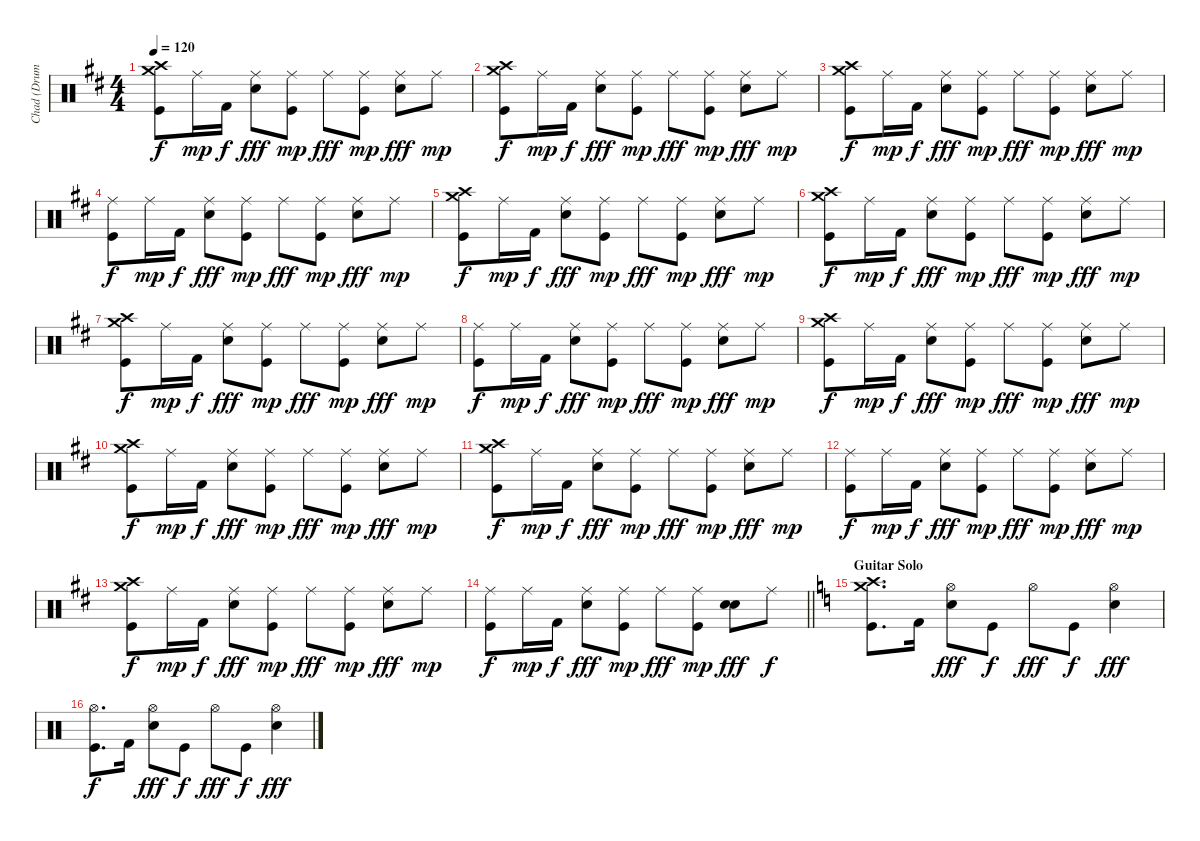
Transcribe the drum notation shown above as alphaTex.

\track ("Chad (Drums)" "Chad (Drum") {instrument percussion}
\staff {score}
\articulation defaults
\ts (4 4)
\tempo 120
\clef neutral
\ks d
("Crash high (hit)" "Crash medium (hit)" "Kick (hit)").8{dy f} "Ride (middle)".16{dy mp} "Kick (hit) 2".16{dy f} ("Ride (middle)" "Snare (hit) 2").8{dy fff} ("Ride (middle)" "Kick (hit)").8{dy mp} "Ride (middle)".8{dy fff} ("Ride (middle)" "Kick (hit)").8{dy mp} ("Ride (middle)" "Snare (hit) 2").8{dy fff} "Ride (middle)".8{dy mp} |
("Crash high (hit)" "Crash medium (hit)" "Kick (hit)").8{dy f} "Ride (middle)".16{dy mp} "Kick (hit) 2".16{dy f} ("Ride (middle)" "Snare (hit) 2").8{dy fff} ("Ride (middle)" "Kick (hit)").8{dy mp} "Ride (middle)".8{dy fff} ("Ride (middle)" "Kick (hit)").8{dy mp} ("Ride (middle)" "Snare (hit) 2").8{dy fff} "Ride (middle)".8{dy mp} |
("Crash high (hit)" "Crash medium (hit)" "Kick (hit)").8{dy f} "Ride (middle)".16{dy mp} "Kick (hit) 2".16{dy f} ("Ride (middle)" "Snare (hit) 2").8{dy fff} ("Ride (middle)" "Kick (hit)").8{dy mp} "Ride (middle)".8{dy fff} ("Ride (middle)" "Kick (hit)").8{dy mp} ("Ride (middle)" "Snare (hit) 2").8{dy fff} "Ride (middle)".8{dy mp} |
("Ride (middle)" "Kick (hit)").8{dy f} "Ride (middle)".16{dy mp} "Kick (hit) 2".16{dy f} ("Ride (middle)" "Snare (hit) 2").8{dy fff} ("Ride (middle)" "Kick (hit)").8{dy mp} "Ride (middle)".8{dy fff} ("Ride (middle)" "Kick (hit)").8{dy mp} ("Ride (middle)" "Snare (hit) 2").8{dy fff} "Ride (middle)".8{dy mp} |
("Crash high (hit)" "Crash medium (hit)" "Kick (hit)").8{dy f} "Ride (middle)".16{dy mp} "Kick (hit) 2".16{dy f} ("Ride (middle)" "Snare (hit) 2").8{dy fff} ("Ride (middle)" "Kick (hit)").8{dy mp} "Ride (middle)".8{dy fff} ("Ride (middle)" "Kick (hit)").8{dy mp} ("Ride (middle)" "Snare (hit) 2").8{dy fff} "Ride (middle)".8{dy mp} |
("Crash high (hit)" "Crash medium (hit)" "Kick (hit)").8{dy f} "Ride (middle)".16{dy mp} "Kick (hit) 2".16{dy f} ("Ride (middle)" "Snare (hit) 2").8{dy fff} ("Ride (middle)" "Kick (hit)").8{dy mp} "Ride (middle)".8{dy fff} ("Ride (middle)" "Kick (hit)").8{dy mp} ("Ride (middle)" "Snare (hit) 2").8{dy fff} "Ride (middle)".8{dy mp} |
("Crash high (hit)" "Crash medium (hit)" "Kick (hit)").8{dy f} "Ride (middle)".16{dy mp} "Kick (hit) 2".16{dy f} ("Ride (middle)" "Snare (hit) 2").8{dy fff} ("Ride (middle)" "Kick (hit)").8{dy mp} "Ride (middle)".8{dy fff} ("Ride (middle)" "Kick (hit)").8{dy mp} ("Ride (middle)" "Snare (hit) 2").8{dy fff} "Ride (middle)".8{dy mp} |
("Ride (middle)" "Kick (hit)").8{dy f} "Ride (middle)".16{dy mp} "Kick (hit) 2".16{dy f} ("Ride (middle)" "Snare (hit) 2").8{dy fff} ("Ride (middle)" "Kick (hit)").8{dy mp} "Ride (middle)".8{dy fff} ("Ride (middle)" "Kick (hit)").8{dy mp} ("Ride (middle)" "Snare (hit) 2").8{dy fff} "Ride (middle)".8{dy mp} |
("Crash high (hit)" "Crash medium (hit)" "Kick (hit)").8{dy f} "Ride (middle)".16{dy mp} "Kick (hit) 2".16{dy f} ("Ride (middle)" "Snare (hit) 2").8{dy fff} ("Ride (middle)" "Kick (hit)").8{dy mp} "Ride (middle)".8{dy fff} ("Ride (middle)" "Kick (hit)").8{dy mp} ("Ride (middle)" "Snare (hit) 2").8{dy fff} "Ride (middle)".8{dy mp} |
("Crash high (hit)" "Crash medium (hit)" "Kick (hit)").8{dy f} "Ride (middle)".16{dy mp} "Kick (hit) 2".16{dy f} ("Ride (middle)" "Snare (hit) 2").8{dy fff} ("Ride (middle)" "Kick (hit)").8{dy mp} "Ride (middle)".8{dy fff} ("Ride (middle)" "Kick (hit)").8{dy mp} ("Ride (middle)" "Snare (hit) 2").8{dy fff} "Ride (middle)".8{dy mp} |
("Crash high (hit)" "Crash medium (hit)" "Kick (hit)").8{dy f} "Ride (middle)".16{dy mp} "Kick (hit) 2".16{dy f} ("Ride (middle)" "Snare (hit) 2").8{dy fff} ("Ride (middle)" "Kick (hit)").8{dy mp} "Ride (middle)".8{dy fff} ("Ride (middle)" "Kick (hit)").8{dy mp} ("Ride (middle)" "Snare (hit) 2").8{dy fff} "Ride (middle)".8{dy mp} |
("Ride (middle)" "Kick (hit)").8{dy f} "Ride (middle)".16{dy mp} "Kick (hit) 2".16{dy f} ("Ride (middle)" "Snare (hit) 2").8{dy fff} ("Ride (middle)" "Kick (hit)").8{dy mp} "Ride (middle)".8{dy fff} ("Ride (middle)" "Kick (hit)").8{dy mp} ("Ride (middle)" "Snare (hit) 2").8{dy fff} "Ride (middle)".8{dy mp} |
("Crash high (hit)" "Crash medium (hit)" "Kick (hit)").8{dy f} "Ride (middle)".16{dy mp} "Kick (hit) 2".16{dy f} ("Ride (middle)" "Snare (hit) 2").8{dy fff} ("Ride (middle)" "Kick (hit)").8{dy mp} "Ride (middle)".8{dy fff} ("Ride (middle)" "Kick (hit)").8{dy mp} ("Ride (middle)" "Snare (hit) 2").8{dy fff} "Ride (middle)".8{dy mp} |
\barLineRight lightlight
("Ride (middle)" "Kick (hit)").8{dy f} "Ride (middle)".16{dy mp} "Kick (hit) 2".16{dy f} ("Ride (middle)" "Snare (hit) 2").8{dy fff} ("Ride (middle)" "Kick (hit)").8{dy mp} "Ride (middle)".8{dy fff} ("Ride (middle)" "Kick (hit)").8{dy mp} ("Snare (hit) 2" "Snare (hit) 2").8{bd 240 dy fff} "Ride (middle)".8{dy f} |
\section ("" "Guitar Solo")
\ks c
("Crash high (hit)" "Crash medium (hit)" "Kick (hit)").8{d} "Kick (hit) 2".16 ("Hi-Hat (open)" "Snare (hit) 2").8{dy fff} "Kick (hit)".8{dy f} "Hi-Hat (open)".8{dy fff} "Kick (hit)".8{dy f} ("Hi-Hat (open)" "Snare (hit) 2").4{dy fff} |
("Hi-Hat (open)" "Kick (hit)").8{d dy f} "Kick (hit) 2".16 ("Hi-Hat (open)" "Snare (hit) 2").8{dy fff} "Kick (hit)".8{dy f} "Hi-Hat (open)".8{dy fff} "Kick (hit)".8{dy f} ("Hi-Hat (open)" "Snare (hit) 2").4{dy fff}
